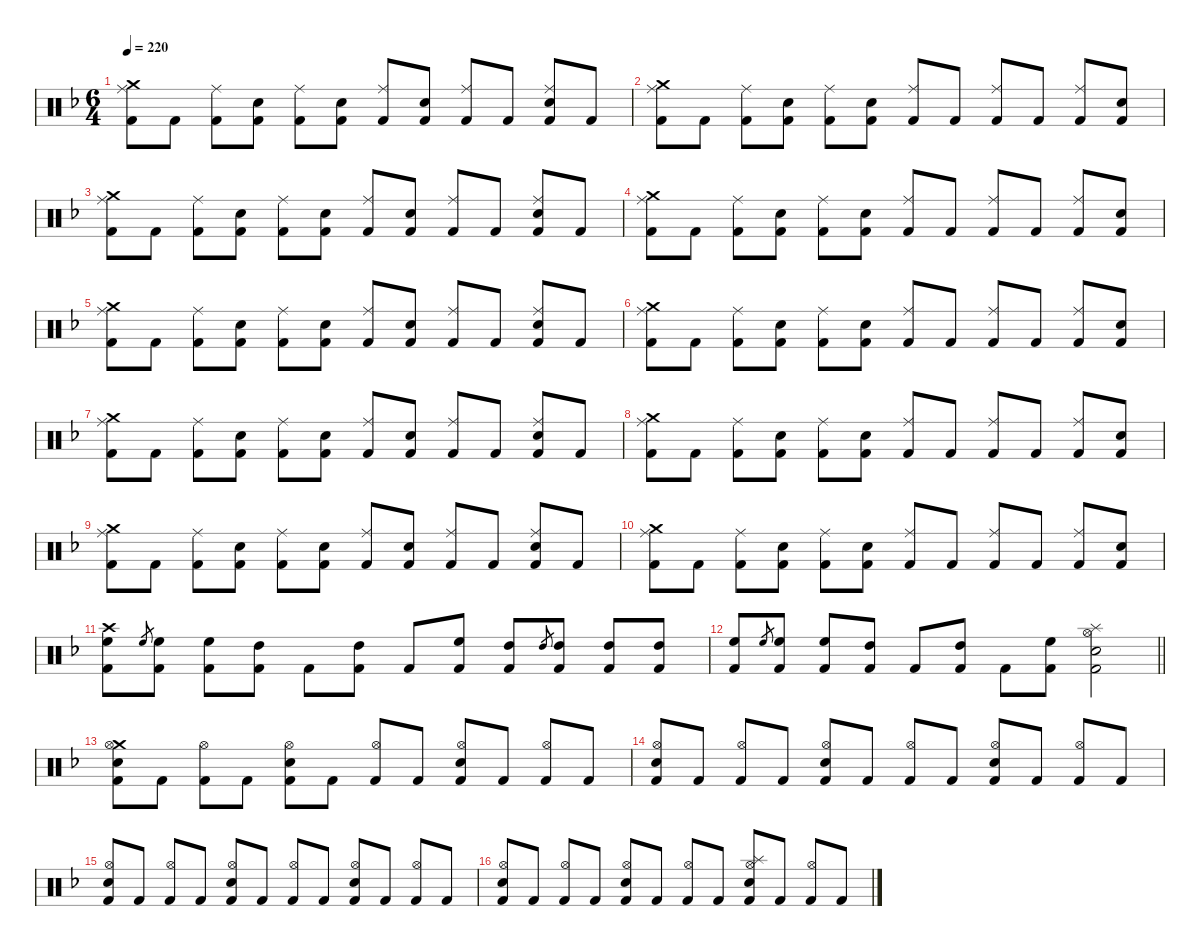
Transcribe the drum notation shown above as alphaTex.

\hideDynamics
\bracketExtendMode nobrackets
\singleTrackTrackNamePolicy hidden
\multiTrackTrackNamePolicy hidden
\firstSystemTrackNameMode fullname
\firstSystemTrackNameOrientation horizontal
\otherSystemsTrackNameOrientation horizontal
\track ("Drumkit" "Drums") {instrument percussion}
\staff {score}
\articulation defaults
\ts (6 4)
\tempo 220
\clef neutral
\ks dminor
("Ride (middle)"{acc forcenatural} "Crash medium (hit)"{acc forcenatural} "Kick (hit) 2"{acc forcenatural}).8{dy mf beam Down} "Kick (hit) 2"{acc forcenatural}.8{dy f beam Down} ("Ride (middle)"{acc forcenatural} "Kick (hit) 2"{acc forcenatural}).8{dy mf beam Down} ("Snare (hit) 2"{acc forcenatural} "Kick (hit) 2"{acc forcenatural}).8{dy f beam Down} ("Ride (middle)"{acc forcenatural} "Kick (hit) 2"{acc forcenatural}).8{dy mf beam Down} ("Snare (hit) 2"{acc forcenatural} "Kick (hit) 2"{acc forcenatural}).8{dy f beam Down} ("Ride (middle)"{acc forcenatural} "Kick (hit) 2"{acc forcenatural}).8{dy mf beam Up} ("Snare (hit) 2"{acc forcenatural} "Kick (hit) 2"{acc forcenatural}).8{dy f beam Up} ("Ride (middle)"{acc forcenatural} "Kick (hit) 2"{acc forcenatural}).8{dy mf beam Up} "Kick (hit) 2"{acc forcenatural}.8{dy f beam Up} ("Ride (middle)"{acc forcenatural} "Snare (hit) 2"{acc forcenatural} "Kick (hit) 2"{acc forcenatural}).8{dy mf beam Up} "Kick (hit) 2"{acc forcenatural}.8{dy f beam Up} |
("Ride (middle)"{acc forcenatural} "Crash medium (hit)"{acc forcenatural} "Kick (hit) 2"{acc forcenatural}).8{dy mf beam Down} "Kick (hit) 2"{acc forcenatural}.8{dy f beam Down} ("Ride (middle)"{acc forcenatural} "Kick (hit) 2"{acc forcenatural}).8{dy mf beam Down} ("Snare (hit) 2"{acc forcenatural} "Kick (hit) 2"{acc forcenatural}).8{dy f beam Down} ("Ride (middle)"{acc forcenatural} "Kick (hit) 2"{acc forcenatural}).8{dy mf beam Down} ("Snare (hit) 2"{acc forcenatural} "Kick (hit) 2"{acc forcenatural}).8{dy f beam Down} ("Ride (middle)"{acc forcenatural} "Kick (hit) 2"{acc forcenatural}).8{dy mf beam Up} "Kick (hit) 2"{acc forcenatural}.8{dy f beam Up} ("Ride (middle)"{acc forcenatural} "Kick (hit) 2"{acc forcenatural}).8{dy mf beam Up} "Kick (hit) 2"{acc forcenatural}.8{dy f beam Up} ("Ride (middle)"{acc forcenatural} "Kick (hit) 2"{acc forcenatural}).8{dy mf beam Up} ("Snare (hit) 2"{acc forcenatural} "Kick (hit) 2"{acc forcenatural}).8{dy f beam Up} |
("Ride (middle)"{acc forcenatural} "Crash medium (hit)"{acc forcenatural} "Kick (hit) 2"{acc forcenatural}).8{dy mf beam Down} "Kick (hit) 2"{acc forcenatural}.8{dy f beam Down} ("Ride (middle)"{acc forcenatural} "Kick (hit) 2"{acc forcenatural}).8{dy mf beam Down} ("Snare (hit) 2"{acc forcenatural} "Kick (hit) 2"{acc forcenatural}).8{dy f beam Down} ("Ride (middle)"{acc forcenatural} "Kick (hit) 2"{acc forcenatural}).8{dy mf beam Down} ("Snare (hit) 2"{acc forcenatural} "Kick (hit) 2"{acc forcenatural}).8{dy f beam Down} ("Ride (middle)"{acc forcenatural} "Kick (hit) 2"{acc forcenatural}).8{dy mf beam Up} ("Snare (hit) 2"{acc forcenatural} "Kick (hit) 2"{acc forcenatural}).8{dy f beam Up} ("Ride (middle)"{acc forcenatural} "Kick (hit) 2"{acc forcenatural}).8{dy mf beam Up} "Kick (hit) 2"{acc forcenatural}.8{dy f beam Up} ("Ride (middle)"{acc forcenatural} "Snare (hit) 2"{acc forcenatural} "Kick (hit) 2"{acc forcenatural}).8{dy mf beam Up} "Kick (hit) 2"{acc forcenatural}.8{dy f beam Up} |
("Ride (middle)"{acc forcenatural} "Crash medium (hit)"{acc forcenatural} "Kick (hit) 2"{acc forcenatural}).8{dy mf beam Down} "Kick (hit) 2"{acc forcenatural}.8{dy f beam Down} ("Ride (middle)"{acc forcenatural} "Kick (hit) 2"{acc forcenatural}).8{dy mf beam Down} ("Snare (hit) 2"{acc forcenatural} "Kick (hit) 2"{acc forcenatural}).8{dy f beam Down} ("Ride (middle)"{acc forcenatural} "Kick (hit) 2"{acc forcenatural}).8{dy mf beam Down} ("Snare (hit) 2"{acc forcenatural} "Kick (hit) 2"{acc forcenatural}).8{dy f beam Down} ("Ride (middle)"{acc forcenatural} "Kick (hit) 2"{acc forcenatural}).8{dy mf beam Up} "Kick (hit) 2"{acc forcenatural}.8{dy f beam Up} ("Ride (middle)"{acc forcenatural} "Kick (hit) 2"{acc forcenatural}).8{dy mf beam Up} "Kick (hit) 2"{acc forcenatural}.8{dy f beam Up} ("Ride (middle)"{acc forcenatural} "Kick (hit) 2"{acc forcenatural}).8{dy mf beam Up} ("Snare (hit) 2"{acc forcenatural} "Kick (hit) 2"{acc forcenatural}).8{dy f beam Up} |
("Ride (middle)"{acc forcenatural} "Crash medium (hit)"{acc forcenatural} "Kick (hit) 2"{acc forcenatural}).8{dy mf beam Down} "Kick (hit) 2"{acc forcenatural}.8{dy f beam Down} ("Ride (middle)"{acc forcenatural} "Kick (hit) 2"{acc forcenatural}).8{dy mf beam Down} ("Snare (hit) 2"{acc forcenatural} "Kick (hit) 2"{acc forcenatural}).8{dy f beam Down} ("Ride (middle)"{acc forcenatural} "Kick (hit) 2"{acc forcenatural}).8{dy mf beam Down} ("Snare (hit) 2"{acc forcenatural} "Kick (hit) 2"{acc forcenatural}).8{dy f beam Down} ("Ride (middle)"{acc forcenatural} "Kick (hit) 2"{acc forcenatural}).8{dy mf beam Up} ("Snare (hit) 2"{acc forcenatural} "Kick (hit) 2"{acc forcenatural}).8{dy f beam Up} ("Ride (middle)"{acc forcenatural} "Kick (hit) 2"{acc forcenatural}).8{dy mf beam Up} "Kick (hit) 2"{acc forcenatural}.8{dy f beam Up} ("Ride (middle)"{acc forcenatural} "Snare (hit) 2"{acc forcenatural} "Kick (hit) 2"{acc forcenatural}).8{dy mf beam Up} "Kick (hit) 2"{acc forcenatural}.8{dy f beam Up} |
("Ride (middle)"{acc forcenatural} "Crash medium (hit)"{acc forcenatural} "Kick (hit) 2"{acc forcenatural}).8{dy mf beam Down} "Kick (hit) 2"{acc forcenatural}.8{dy f beam Down} ("Ride (middle)"{acc forcenatural} "Kick (hit) 2"{acc forcenatural}).8{dy mf beam Down} ("Snare (hit) 2"{acc forcenatural} "Kick (hit) 2"{acc forcenatural}).8{dy f beam Down} ("Ride (middle)"{acc forcenatural} "Kick (hit) 2"{acc forcenatural}).8{dy mf beam Down} ("Snare (hit) 2"{acc forcenatural} "Kick (hit) 2"{acc forcenatural}).8{dy f beam Down} ("Ride (middle)"{acc forcenatural} "Kick (hit) 2"{acc forcenatural}).8{dy mf beam Up} "Kick (hit) 2"{acc forcenatural}.8{dy f beam Up} ("Ride (middle)"{acc forcenatural} "Kick (hit) 2"{acc forcenatural}).8{dy mf beam Up} "Kick (hit) 2"{acc forcenatural}.8{dy f beam Up} ("Ride (middle)"{acc forcenatural} "Kick (hit) 2"{acc forcenatural}).8{dy mf beam Up} ("Snare (hit) 2"{acc forcenatural} "Kick (hit) 2"{acc forcenatural}).8{dy f beam Up} |
("Ride (middle)"{acc forcenatural} "Crash medium (hit)"{acc forcenatural} "Kick (hit) 2"{acc forcenatural}).8{dy mf beam Down} "Kick (hit) 2"{acc forcenatural}.8{dy f beam Down} ("Ride (middle)"{acc forcenatural} "Kick (hit) 2"{acc forcenatural}).8{dy mf beam Down} ("Snare (hit) 2"{acc forcenatural} "Kick (hit) 2"{acc forcenatural}).8{dy f beam Down} ("Ride (middle)"{acc forcenatural} "Kick (hit) 2"{acc forcenatural}).8{dy mf beam Down} ("Snare (hit) 2"{acc forcenatural} "Kick (hit) 2"{acc forcenatural}).8{dy f beam Down} ("Ride (middle)"{acc forcenatural} "Kick (hit) 2"{acc forcenatural}).8{dy mf beam Up} ("Snare (hit) 2"{acc forcenatural} "Kick (hit) 2"{acc forcenatural}).8{dy f beam Up} ("Ride (middle)"{acc forcenatural} "Kick (hit) 2"{acc forcenatural}).8{dy mf beam Up} "Kick (hit) 2"{acc forcenatural}.8{dy f beam Up} ("Ride (middle)"{acc forcenatural} "Snare (hit) 2"{acc forcenatural} "Kick (hit) 2"{acc forcenatural}).8{dy mf beam Up} "Kick (hit) 2"{acc forcenatural}.8{dy f beam Up} |
("Ride (middle)"{acc forcenatural} "Crash medium (hit)"{acc forcenatural} "Kick (hit) 2"{acc forcenatural}).8{dy mf beam Down} "Kick (hit) 2"{acc forcenatural}.8{dy f beam Down} ("Ride (middle)"{acc forcenatural} "Kick (hit) 2"{acc forcenatural}).8{dy mf beam Down} ("Snare (hit) 2"{acc forcenatural} "Kick (hit) 2"{acc forcenatural}).8{dy f beam Down} ("Ride (middle)"{acc forcenatural} "Kick (hit) 2"{acc forcenatural}).8{dy mf beam Down} ("Snare (hit) 2"{acc forcenatural} "Kick (hit) 2"{acc forcenatural}).8{dy f beam Down} ("Ride (middle)"{acc forcenatural} "Kick (hit) 2"{acc forcenatural}).8{dy mf beam Up} "Kick (hit) 2"{acc forcenatural}.8{dy f beam Up} ("Ride (middle)"{acc forcenatural} "Kick (hit) 2"{acc forcenatural}).8{dy mf beam Up} "Kick (hit) 2"{acc forcenatural}.8{dy f beam Up} ("Ride (middle)"{acc forcenatural} "Kick (hit) 2"{acc forcenatural}).8{dy mf beam Up} ("Snare (hit) 2"{acc forcenatural} "Kick (hit) 2"{acc forcenatural}).8{dy f beam Up} |
("Ride (middle)"{acc forcenatural} "Crash medium (hit)"{acc forcenatural} "Kick (hit) 2"{acc forcenatural}).8{dy mf beam Down} "Kick (hit) 2"{acc forcenatural}.8{dy f beam Down} ("Ride (middle)"{acc forcenatural} "Kick (hit) 2"{acc forcenatural}).8{dy mf beam Down} ("Snare (hit) 2"{acc forcenatural} "Kick (hit) 2"{acc forcenatural}).8{dy f beam Down} ("Ride (middle)"{acc forcenatural} "Kick (hit) 2"{acc forcenatural}).8{dy mf beam Down} ("Snare (hit) 2"{acc forcenatural} "Kick (hit) 2"{acc forcenatural}).8{dy f beam Down} ("Ride (middle)"{acc forcenatural} "Kick (hit) 2"{acc forcenatural}).8{dy mf beam Up} ("Snare (hit) 2"{acc forcenatural} "Kick (hit) 2"{acc forcenatural}).8{dy f beam Up} ("Ride (middle)"{acc forcenatural} "Kick (hit) 2"{acc forcenatural}).8{dy mf beam Up} "Kick (hit) 2"{acc forcenatural}.8{dy f beam Up} ("Ride (middle)"{acc forcenatural} "Snare (hit) 2"{acc forcenatural} "Kick (hit) 2"{acc forcenatural}).8{dy mf beam Up} "Kick (hit) 2"{acc forcenatural}.8{dy f beam Up} |
("Ride (middle)"{acc forcenatural} "Crash medium (hit)"{acc forcenatural} "Kick (hit) 2"{acc forcenatural}).8{dy mf beam Down} "Kick (hit) 2"{acc forcenatural}.8{dy f beam Down} ("Ride (middle)"{acc forcenatural} "Kick (hit) 2"{acc forcenatural}).8{dy mf beam Down} ("Snare (hit) 2"{acc forcenatural} "Kick (hit) 2"{acc forcenatural}).8{dy f beam Down} ("Ride (middle)"{acc forcenatural} "Kick (hit) 2"{acc forcenatural}).8{dy mf beam Down} ("Snare (hit) 2"{acc forcenatural} "Kick (hit) 2"{acc forcenatural}).8{dy f beam Down} ("Ride (middle)"{acc forcenatural} "Kick (hit) 2"{acc forcenatural}).8{dy mf beam Up} "Kick (hit) 2"{acc forcenatural}.8{dy f beam Up} ("Ride (middle)"{acc forcenatural} "Kick (hit) 2"{acc forcenatural}).8{dy mf beam Up} "Kick (hit) 2"{acc forcenatural}.8{dy f beam Up} ("Ride (middle)"{acc forcenatural} "Kick (hit) 2"{acc forcenatural}).8{dy mf beam Up} ("Snare (hit) 2"{acc forcenatural} "Kick (hit) 2"{acc forcenatural}).8{dy f beam Up} |
("Crash high (hit)"{acc forcenatural} "High Floor Tom (hit)"{acc forcenatural} "Kick (hit) 2"{acc forcenatural}).8{beam Down} "High Floor Tom (hit)"{acc forcenatural}.8{gr dy mf beam Up} ("High Floor Tom (hit)"{acc forcenatural} "Kick (hit) 2"{acc forcenatural}).8{dy f beam Down} ("High Floor Tom (hit)"{acc forcenatural} "Kick (hit) 2"{acc forcenatural}).8{beam Down} ("High Tom (hit)"{acc forcenatural} "Kick (hit) 2"{acc forcenatural}).8{beam Down} "Kick (hit) 2"{acc forcenatural}.8{beam Down} ("High Tom (hit)"{acc forcenatural} "Kick (hit) 2"{acc forcenatural}).8{beam Down} "Kick (hit) 2"{acc forcenatural}.8{beam Up} ("High Floor Tom (hit)"{acc forcenatural} "Kick (hit) 2"{acc forcenatural}).8{beam Up} ("High Tom (hit)"{acc forcenatural} "Kick (hit) 2"{acc forcenatural}).8{beam Up} "High Tom (hit)"{acc forcenatural}.8{gr dy mf beam Up} ("High Tom (hit)"{acc forcenatural} "Kick (hit) 2"{acc forcenatural}).8{dy f beam Up} ("High Tom (hit)"{acc forcenatural} "Kick (hit) 2"{acc forcenatural}).8{beam Up} ("High Tom (hit)"{acc forcenatural} "Kick (hit) 2"{acc forcenatural}).8{dy mf beam Up} |
\barLineRight lightlight
("High Floor Tom (hit)"{acc forcenatural} "Kick (hit) 2"{acc forcenatural}).8{dy f beam Up} "High Floor Tom (hit)"{acc forcenatural}.8{gr dy mf beam Up} ("High Floor Tom (hit)"{acc forcenatural} "Kick (hit) 2"{acc forcenatural}).8{dy f beam Up} ("High Floor Tom (hit)"{acc forcenatural} "Kick (hit) 2"{acc forcenatural}).8{beam Up} ("High Tom (hit)"{acc forcenatural} "Kick (hit) 2"{acc forcenatural}).8{beam Up} "Kick (hit) 2"{acc forcenatural}.8{beam Up} ("High Tom (hit)"{acc forcenatural} "Kick (hit) 2"{acc forcenatural}).8{beam Up} "Kick (hit) 2"{acc forcenatural}.8{beam Down} ("High Floor Tom (hit)"{acc forcenatural} "Kick (hit) 2"{acc forcenatural}).8{beam Down} ("Splash (hit)"{acc forcenatural} "Hi-Hat (open)"{acc forcenatural} "Snare (hit) 2"{acc forcenatural} "Kick (hit) 2"{acc forcenatural}).2{beam Down} |
("Crash medium (hit)"{acc forcenatural} "Hi-Hat (open)"{acc forcenatural} "Snare (hit) 2"{acc forcenatural} "Kick (hit) 2"{acc forcenatural}).8{beam Down} "Kick (hit) 2"{acc forcenatural}.8{beam Down} ("Hi-Hat (open)"{acc forcenatural} "Kick (hit) 2"{acc forcenatural}).8{beam Down} "Kick (hit) 2"{acc forcenatural}.8{beam Down} ("Hi-Hat (open)"{acc forcenatural} "Snare (hit) 2"{acc forcenatural} "Kick (hit) 2"{acc forcenatural}).8{beam Down} "Kick (hit) 2"{acc forcenatural}.8{beam Down} ("Hi-Hat (open)"{acc forcenatural} "Kick (hit) 2"{acc forcenatural}).8{beam Up} "Kick (hit) 2"{acc forcenatural}.8{beam Up} ("Hi-Hat (open)"{acc forcenatural} "Snare (hit) 2"{acc forcenatural} "Kick (hit) 2"{acc forcenatural}).8{beam Up} "Kick (hit) 2"{acc forcenatural}.8{beam Up} ("Hi-Hat (open)"{acc forcenatural} "Kick (hit) 2"{acc forcenatural}).8{beam Up} "Kick (hit) 2"{acc forcenatural}.8{beam Up} |
("Hi-Hat (open)"{acc forcenatural} "Snare (hit) 2"{acc forcenatural} "Kick (hit) 2"{acc forcenatural}).8{beam Up} "Kick (hit) 2"{acc forcenatural}.8{beam Up} ("Hi-Hat (open)"{acc forcenatural} "Kick (hit) 2"{acc forcenatural}).8{beam Up} "Kick (hit) 2"{acc forcenatural}.8{beam Up} ("Hi-Hat (open)"{acc forcenatural} "Snare (hit) 2"{acc forcenatural} "Kick (hit) 2"{acc forcenatural}).8{beam Up} "Kick (hit) 2"{acc forcenatural}.8{beam Up} ("Hi-Hat (open)"{acc forcenatural} "Kick (hit) 2"{acc forcenatural}).8{beam Up} "Kick (hit) 2"{acc forcenatural}.8{beam Up} ("Hi-Hat (open)"{acc forcenatural} "Snare (hit) 2"{acc forcenatural} "Kick (hit) 2"{acc forcenatural}).8{beam Up} "Kick (hit) 2"{acc forcenatural}.8{beam Up} ("Hi-Hat (open)"{acc forcenatural} "Kick (hit) 2"{acc forcenatural}).8{beam Up} "Kick (hit) 2"{acc forcenatural}.8{beam Up} |
("Hi-Hat (open)"{acc forcenatural} "Snare (hit) 2"{acc forcenatural} "Kick (hit) 2"{acc forcenatural}).8{beam Up} "Kick (hit) 2"{acc forcenatural}.8{beam Up} ("Hi-Hat (open)"{acc forcenatural} "Kick (hit) 2"{acc forcenatural}).8{beam Up} "Kick (hit) 2"{acc forcenatural}.8{beam Up} ("Hi-Hat (open)"{acc forcenatural} "Snare (hit) 2"{acc forcenatural} "Kick (hit) 2"{acc forcenatural}).8{beam Up} "Kick (hit) 2"{acc forcenatural}.8{beam Up} ("Hi-Hat (open)"{acc forcenatural} "Kick (hit) 2"{acc forcenatural}).8{beam Up} "Kick (hit) 2"{acc forcenatural}.8{beam Up} ("Hi-Hat (open)"{acc forcenatural} "Snare (hit) 2"{acc forcenatural} "Kick (hit) 2"{acc forcenatural}).8{beam Up} "Kick (hit) 2"{acc forcenatural}.8{beam Up} ("Hi-Hat (open)"{acc forcenatural} "Kick (hit) 2"{acc forcenatural}).8{beam Up} "Kick (hit) 2"{acc forcenatural}.8{beam Up} |
("Hi-Hat (open)"{acc forcenatural} "Snare (hit) 2"{acc forcenatural} "Kick (hit) 2"{acc forcenatural}).8{beam Up} "Kick (hit) 2"{acc forcenatural}.8{beam Up} ("Hi-Hat (open)"{acc forcenatural} "Kick (hit) 2"{acc forcenatural}).8{beam Up} "Kick (hit) 2"{acc forcenatural}.8{beam Up} ("Hi-Hat (open)"{acc forcenatural} "Snare (hit) 2"{acc forcenatural} "Kick (hit) 2"{acc forcenatural}).8{beam Up} "Kick (hit) 2"{acc forcenatural}.8{beam Up} ("Hi-Hat (open)"{acc forcenatural} "Kick (hit) 2"{acc forcenatural}).8{beam Up} "Kick (hit) 2"{acc forcenatural}.8{beam Up} ("Splash (hit)"{acc forcenatural} "Hi-Hat (open)"{acc forcenatural} "Snare (hit) 2"{acc forcenatural} "Kick (hit) 2"{acc forcenatural}).8{beam Up} "Kick (hit) 2"{acc forcenatural}.8{beam Up} ("Hi-Hat (open)"{acc forcenatural} "Kick (hit) 2"{acc forcenatural}).8{beam Up} "Kick (hit) 2"{acc forcenatural}.8{beam Up}
